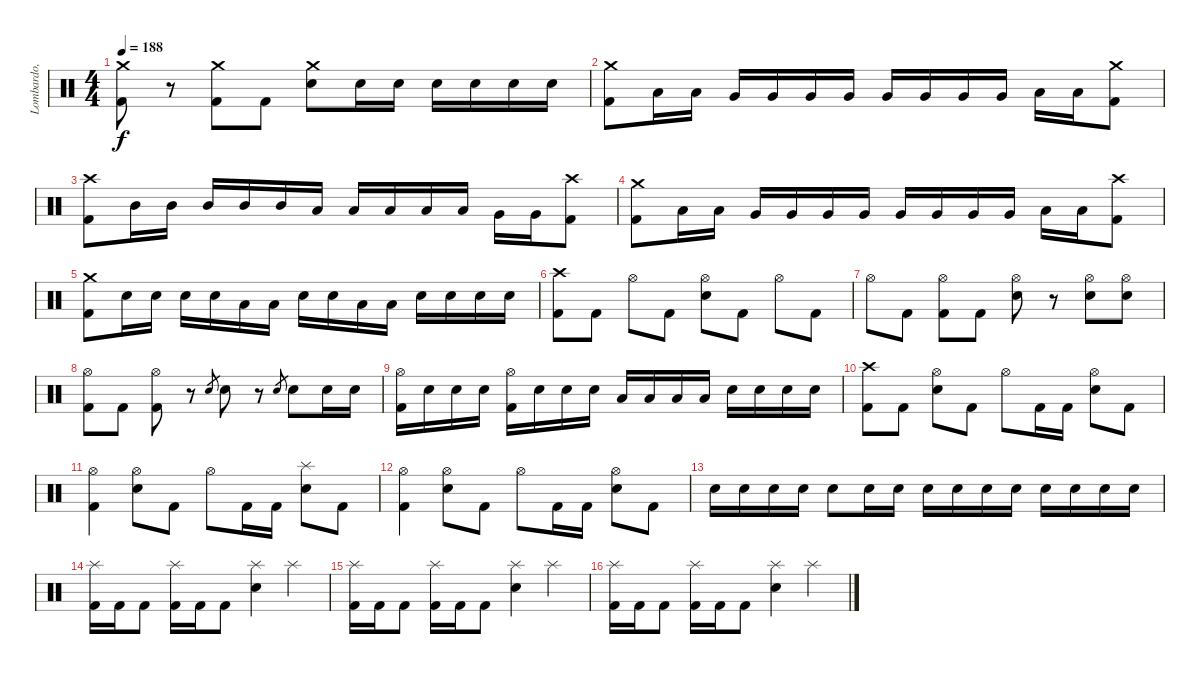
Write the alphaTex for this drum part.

\track ("Lombardo, Dave" "Lombardo, ") {instrument percussion}
\staff {score}
\articulation defaults
\ts (4 4)
\tempo 188
\clef neutral
\ks c
("Kick (hit) 2" "Crash medium (hit)").8{dy f} r.8 ("Kick (hit) 2" "Crash medium (hit)").8 "Kick (hit) 2".8 ("Electric Snare (hit)" "Crash medium (hit)").8 "Electric Snare (hit)".16 "Electric Snare (hit)".16 "Electric Snare (hit)".16 "Electric Snare (hit)".16 "Electric Snare (hit)".16 "Electric Snare (hit)".16 |
("Crash medium (hit)" "Kick (hit) 2").8 "Low Tom (hit)".16 "Low Tom (hit)".16 "Very Low Tom (hit)".16 "Very Low Tom (hit)".16 "Very Low Tom (hit)".16 "Very Low Tom (hit)".16 "Very Low Tom (hit)".16 "Very Low Tom (hit)".16 "Very Low Tom (hit)".16 "Very Low Tom (hit)".16 "Low Floor Tom (hit)".16 "Low Floor Tom (hit)".16 ("Crash medium (hit)" "Kick (hit) 2").8 |
("Crash high (hit)" "Kick (hit) 2").8 "Mid Tom (hit)".16 "Mid Tom (hit)".16 "Mid Tom (hit)".16 "Mid Tom (hit)".16 "Mid Tom (hit)".16 "Low Tom (hit)".16 "Low Tom (hit)".16 "Low Tom (hit)".16 "Low Tom (hit)".16 "Low Tom (hit)".16 "Very Low Tom (hit)".16 "Very Low Tom (hit)".16 ("Crash high (hit)" "Kick (hit) 2").8 |
("Crash medium (hit)" "Kick (hit) 2").8 "Low Tom (hit)".16 "Low Tom (hit)".16 "Very Low Tom (hit)".16 "Very Low Tom (hit)".16 "Very Low Tom (hit)".16 "Very Low Tom (hit)".16 "Very Low Tom (hit)".16 "Very Low Tom (hit)".16 "Very Low Tom (hit)".16 "Very Low Tom (hit)".16 "Low Floor Tom (hit)".16 "Low Floor Tom (hit)".16 ("Crash high (hit)" "Kick (hit) 2").8 |
("Crash medium (hit)" "Kick (hit) 2").8 "Electric Snare (hit)".16 "Electric Snare (hit)".16 "Electric Snare (hit)".16 "Electric Snare (hit)".16 "Low Tom (hit)".16 "Low Tom (hit)".16 "Electric Snare (hit)".16 "Electric Snare (hit)".16 "Low Tom (hit)".16 "Low Tom (hit)".16 "Electric Snare (hit)".16 "Electric Snare (hit)".16 "Electric Snare (hit)".16 "Electric Snare (hit)".16 |
("Crash high (hit)" "Kick (hit) 2").8 "Kick (hit) 2".8 "Hi-Hat (open)".8 "Kick (hit) 2".8 ("Electric Snare (hit)" "Hi-Hat (open)").8 "Kick (hit) 2".8 "Hi-Hat (open)".8 "Kick (hit) 2".8 |
"Hi-Hat (open)".8 "Kick (hit) 2".8 ("Kick (hit) 2" "Hi-Hat (open)").8 "Kick (hit) 2".8 ("Electric Snare (hit)" "Hi-Hat (open)").8 r.8 ("Electric Snare (hit)" "Hi-Hat (open)").8 ("Electric Snare (hit)" "Hi-Hat (open)").8 |
("Kick (hit) 2" "Hi-Hat (open)").8 "Kick (hit) 2".8 ("Kick (hit) 2" "Hi-Hat (open)").8 r.8 "Electric Snare (hit)".8{gr} "Electric Snare (hit)".8 r.8 "Electric Snare (hit)".8{gr} "Electric Snare (hit)".8 "Electric Snare (hit)".16 "Electric Snare (hit)".16 |
("Hi-Hat (open)" "Kick (hit) 2").16 "Electric Snare (hit)".16 "Electric Snare (hit)".16 "Electric Snare (hit)".16 ("Hi-Hat (open)" "Kick (hit) 2").16 "Electric Snare (hit)".16 "Electric Snare (hit)".16 "Electric Snare (hit)".16 "Low Tom (hit)".16 "Low Tom (hit)".16 "Low Tom (hit)".16 "Low Tom (hit)".16 "Electric Snare (hit)".16 "Electric Snare (hit)".16 "Electric Snare (hit)".16 "Electric Snare (hit)".16 |
("Crash high (hit)" "Kick (hit) 2").8 "Kick (hit) 2".8 ("Electric Snare (hit)" "Hi-Hat (open)").8 "Kick (hit) 2".8 "Hi-Hat (open)".8 "Kick (hit) 2".16 "Kick (hit) 2".16 ("Electric Snare (hit)" "Hi-Hat (open)").8 "Kick (hit) 2".8 |
("Hi-Hat (open)" "Kick (hit) 2").4 ("Electric Snare (hit)" "Hi-Hat (open)").8 "Kick (hit) 2".8 "Hi-Hat (open)".8 "Kick (hit) 2".16 "Kick (hit) 2".16 ("Electric Snare (hit)" "Splash (hit)").8 "Kick (hit) 2".8 |
("Hi-Hat (open)" "Kick (hit) 2").4 ("Electric Snare (hit)" "Hi-Hat (open)").8 "Kick (hit) 2".8 "Hi-Hat (open)".8 "Kick (hit) 2".16 "Kick (hit) 2".16 ("Electric Snare (hit)" "Hi-Hat (open)").8 "Kick (hit) 2".8 |
"Electric Snare (hit)".16 "Electric Snare (hit)".16 "Electric Snare (hit)".16 "Electric Snare (hit)".16 "Electric Snare (hit)".8 "Electric Snare (hit)".16 "Electric Snare (hit)".16 "Electric Snare (hit)".16 "Electric Snare (hit)".16 "Electric Snare (hit)".16 "Electric Snare (hit)".16 "Electric Snare (hit)".16 "Electric Snare (hit)".16 "Electric Snare (hit)".16 "Electric Snare (hit)".16 |
("Kick (hit) 2" "Splash (hit)").16 "Kick (hit) 2".16 "Kick (hit) 2".8 ("Kick (hit) 2" "Splash (hit)").16 "Kick (hit) 2".16 "Kick (hit) 2".8 ("Electric Snare (hit)" "Splash (hit)").4 "Splash (hit)".4 |
("Kick (hit) 2" "Splash (hit)").16 "Kick (hit) 2".16 "Kick (hit) 2".8 ("Kick (hit) 2" "Splash (hit)").16 "Kick (hit) 2".16 "Kick (hit) 2".8 ("Electric Snare (hit)" "Splash (hit)").4 "Splash (hit)".4 |
("Kick (hit) 2" "Splash (hit)").16 "Kick (hit) 2".16 "Kick (hit) 2".8 ("Kick (hit) 2" "Splash (hit)").16 "Kick (hit) 2".16 "Kick (hit) 2".8 ("Electric Snare (hit)" "Splash (hit)").4 "Splash (hit)".4
